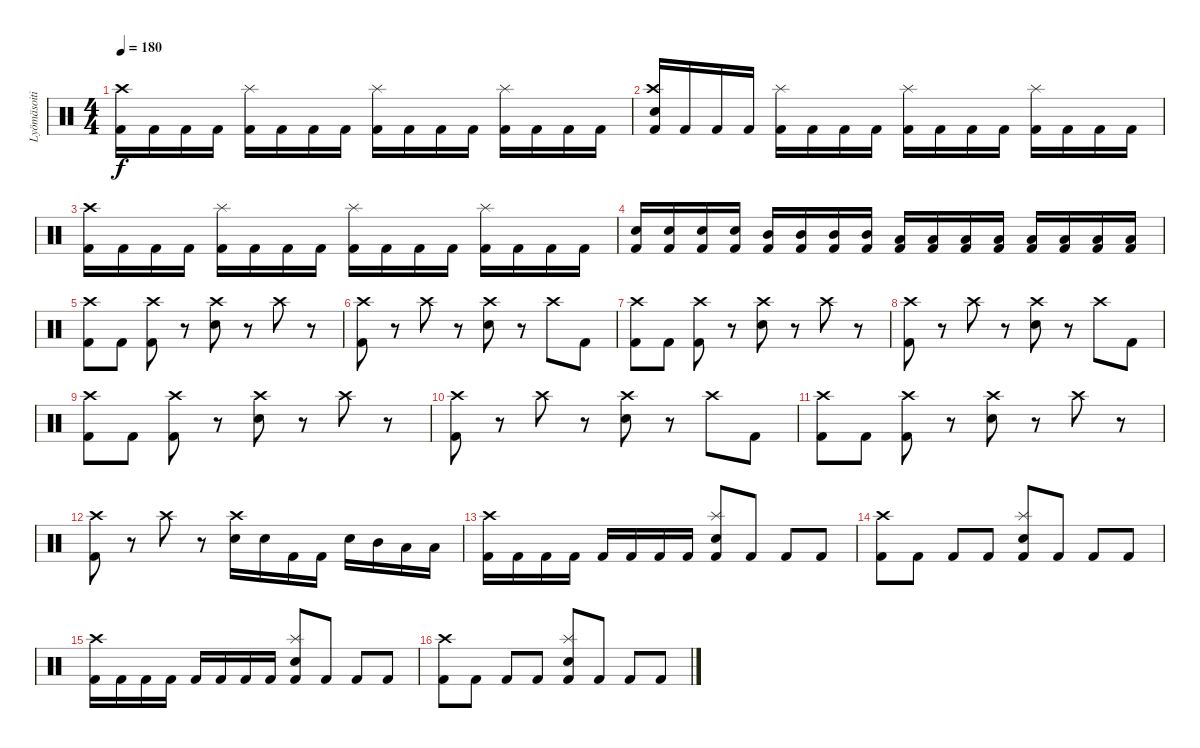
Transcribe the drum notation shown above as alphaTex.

\track ("Lyömäsoitin" "Lyömäsoiti") {instrument percussion}
\staff {score}
\articulation defaults
\ts (4 4)
\tempo 180
\clef neutral
\ks c
("Kick (hit) 2" "Crash high (hit)").16{dy f} "Kick (hit) 2".16 "Kick (hit) 2".16 "Kick (hit) 2".16 ("Kick (hit) 2" "Splash (hit)").16 "Kick (hit) 2".16 "Kick (hit) 2".16 "Kick (hit) 2".16 ("Kick (hit) 2" "Splash (hit)").16 "Kick (hit) 2".16 "Kick (hit) 2".16 "Kick (hit) 2".16 ("Kick (hit) 2" "Splash (hit)").16 "Kick (hit) 2".16 "Kick (hit) 2".16 "Kick (hit) 2".16 |
("Kick (hit) 2" "Electric Snare (hit)" "Crash high (hit)").16 "Kick (hit) 2".16 "Kick (hit) 2".16 "Kick (hit) 2".16 ("Kick (hit) 2" "Splash (hit)").16 "Kick (hit) 2".16 "Kick (hit) 2".16 "Kick (hit) 2".16 ("Kick (hit) 2" "Splash (hit)").16 "Kick (hit) 2".16 "Kick (hit) 2".16 "Kick (hit) 2".16 ("Kick (hit) 2" "Splash (hit)").16 "Kick (hit) 2".16 "Kick (hit) 2".16 "Kick (hit) 2".16 |
("Kick (hit) 2" "Crash high (hit)").16 "Kick (hit) 2".16 "Kick (hit) 2".16 "Kick (hit) 2".16 ("Kick (hit) 2" "Splash (hit)").16 "Kick (hit) 2".16 "Kick (hit) 2".16 "Kick (hit) 2".16 ("Kick (hit) 2" "Splash (hit)").16 "Kick (hit) 2".16 "Kick (hit) 2".16 "Kick (hit) 2".16 ("Kick (hit) 2" "Splash (hit)").16 "Kick (hit) 2".16 "Kick (hit) 2".16 "Kick (hit) 2".16 |
("Kick (hit) 2" "Electric Snare (hit)").16 ("Kick (hit) 2" "Electric Snare (hit)").16 ("Kick (hit) 2" "Electric Snare (hit)").16 ("Kick (hit) 2" "Electric Snare (hit)").16 ("Kick (hit) 2" "Mid Tom (hit)").16 ("Kick (hit) 2" "Mid Tom (hit)").16 ("Kick (hit) 2" "Mid Tom (hit)").16 ("Kick (hit) 2" "Mid Tom (hit)").16 ("Kick (hit) 2" "Low Tom (hit)").16 ("Kick (hit) 2" "Low Tom (hit)").16 ("Kick (hit) 2" "Low Tom (hit)").16 ("Kick (hit) 2" "Low Tom (hit)").16 ("Kick (hit) 2" "Low Floor Tom (hit)").16 ("Kick (hit) 2" "Low Floor Tom (hit)").16 ("Kick (hit) 2" "Low Floor Tom (hit)").16 ("Kick (hit) 2" "Low Floor Tom (hit)").16 |
("Kick (hit) 2" "Crash high (hit)").8 "Kick (hit) 2".8 ("Kick (hit) 2" "Crash high (hit)").8 r.8 ("Electric Snare (hit)" "Crash high (hit)").8 r.8 "Crash high (hit)".8 r.8 |
("Kick (hit) 2" "Crash high (hit)").8 r.8 "Crash high (hit)".8 r.8 ("Electric Snare (hit)" "Crash high (hit)").8 r.8 "Crash high (hit)".8 "Kick (hit) 2".8 |
("Kick (hit) 2" "Crash high (hit)").8 "Kick (hit) 2".8 ("Kick (hit) 2" "Crash high (hit)").8 r.8 ("Electric Snare (hit)" "Crash high (hit)").8 r.8 "Crash high (hit)".8 r.8 |
("Kick (hit) 2" "Crash high (hit)").8 r.8 "Crash high (hit)".8 r.8 ("Electric Snare (hit)" "Crash high (hit)").8 r.8 "Crash high (hit)".8 "Kick (hit) 2".8 |
("Kick (hit) 2" "Crash high (hit)").8 "Kick (hit) 2".8 ("Kick (hit) 2" "Crash high (hit)").8 r.8 ("Electric Snare (hit)" "Crash high (hit)").8 r.8 "Crash high (hit)".8 r.8 |
("Kick (hit) 2" "Crash high (hit)").8 r.8 "Crash high (hit)".8 r.8 ("Electric Snare (hit)" "Crash high (hit)").8 r.8 "Crash high (hit)".8 "Kick (hit) 2".8 |
("Kick (hit) 2" "Crash high (hit)").8 "Kick (hit) 2".8 ("Kick (hit) 2" "Crash high (hit)").8 r.8 ("Electric Snare (hit)" "Crash high (hit)").8 r.8 "Crash high (hit)".8 r.8 |
("Kick (hit) 2" "Crash high (hit)").8 r.8 "Crash high (hit)".8 r.8 ("Electric Snare (hit)" "Crash high (hit)").16 "Electric Snare (hit)".16 "Kick (hit) 2".16 "Kick (hit) 2".16 "Electric Snare (hit)".16 "Mid Tom (hit)".16 "Low Tom (hit)".16 "Low Tom (hit)".16 |
("Kick (hit) 2" "Crash high (hit)").16 "Kick (hit) 2".16 "Kick (hit) 2".16 "Kick (hit) 2".16 "Kick (hit) 2".16 "Kick (hit) 2".16 "Kick (hit) 2".16 "Kick (hit) 2".16 ("Kick (hit) 2" "Electric Snare (hit)" "Splash (hit)").8 "Kick (hit) 2".8 "Kick (hit) 2".8 "Kick (hit) 2".8 |
("Kick (hit) 2" "Crash high (hit)").8 "Kick (hit) 2".8 "Kick (hit) 2".8 "Kick (hit) 2".8 ("Kick (hit) 2" "Electric Snare (hit)" "Splash (hit)").8 "Kick (hit) 2".8 "Kick (hit) 2".8 "Kick (hit) 2".8 |
("Kick (hit) 2" "Crash high (hit)").16 "Kick (hit) 2".16 "Kick (hit) 2".16 "Kick (hit) 2".16 "Kick (hit) 2".16 "Kick (hit) 2".16 "Kick (hit) 2".16 "Kick (hit) 2".16 ("Kick (hit) 2" "Electric Snare (hit)" "Splash (hit)").8 "Kick (hit) 2".8 "Kick (hit) 2".8 "Kick (hit) 2".8 |
("Kick (hit) 2" "Crash high (hit)").8 "Kick (hit) 2".8 "Kick (hit) 2".8 "Kick (hit) 2".8 ("Kick (hit) 2" "Electric Snare (hit)" "Splash (hit)").8 "Kick (hit) 2".8 "Kick (hit) 2".8 "Kick (hit) 2".8
